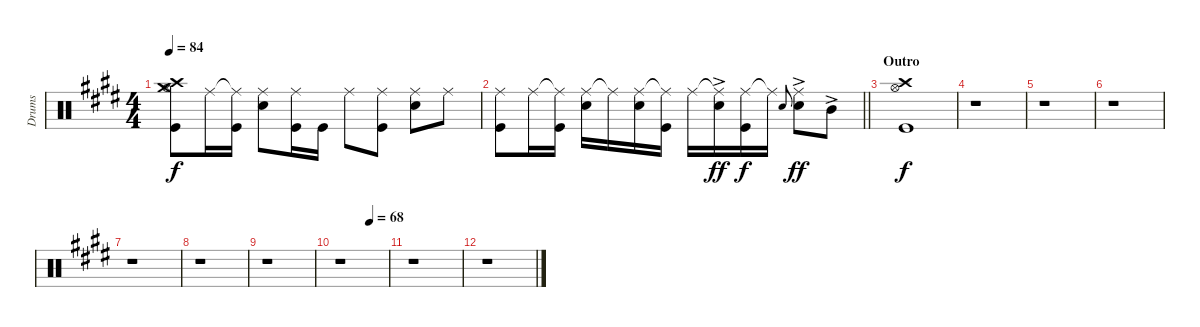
\track ("Drums" "Drums") {instrument percussion}
\staff {score}
\articulation defaults
\ts (4 4)
\tempo 84
\clef neutral
\ks e
("Crash high (hit)" "Crash medium (hit)" "Hi-Hat (open)" "Kick (hit)").8{dy f} "Ride (middle)".16 ("Ride (middle)"{t} "Kick (hit)").16 ("Ride (middle)" "Snare (hit) 2").8 ("Ride (middle)" "Kick (hit)").16 "Kick (hit)".16 "Ride (middle)".8 ("Ride (middle)" "Kick (hit)").8 ("Ride (middle)" "Snare (hit) 2").8 "Ride (middle)".8 |
\barLineRight lightlight
("Ride (middle)" "Kick (hit)").8 "Ride (middle)".16 ("Ride (middle)"{t} "Kick (hit)").16 ("Ride (middle)" "Snare (hit) 2").16 "Ride (middle)"{t}.16 ("Ride (middle)" "Snare (hit) 2").16 ("Ride (middle)"{t} "Kick (hit)").16 "Ride (middle)".16 ("Ride (middle)"{t} "Snare (hit) 2"{ac}).16{dy ff} ("Ride (middle)" "Kick (hit)").16{dy f} "Ride (middle)"{t}.16 "Snare (hit) 2".8{gr onbeat} ("Ride (middle)" "Snare (hit) 2"{ac}).8{dy ff} "Mid Tom (hit)"{ac}.8 |
\section ("" "Outro")
("Crash high (hit)" "Kick (hit)" "Hi-Hat (open)").1{dy f} |
r.1 |
r.1 |
r.1 |
r.1 |
r.1 |
r.1 |
\tempo (68 0.625)
r.1 |
r.1 |
r.1
